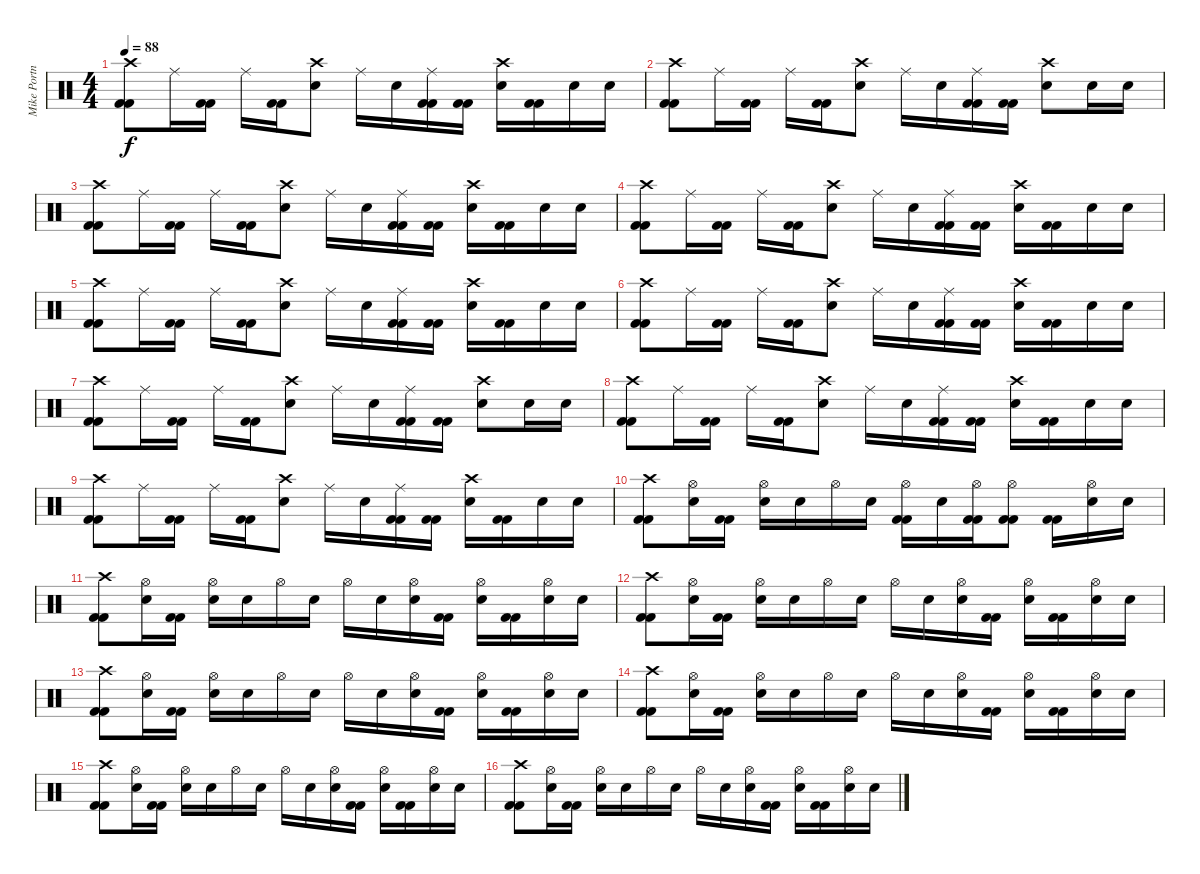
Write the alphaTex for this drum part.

\track ("Mike Portnoy" "Mike Portn") {instrument percussion}
\staff {score}
\articulation defaults
\ts (4 4)
\tempo 88
\clef neutral
\ks c
("Crash high (hit)" "Kick (hit) 2" "Kick (hit) 2").8{dy f} "Ride (middle)".16 ("Kick (hit) 2" "Kick (hit) 2").16 "Ride (middle)".16 ("Kick (hit) 2" "Kick (hit) 2").16 ("Crash high (hit)" "Snare (hit) 2").8 "Ride (middle)".16 "Snare (hit) 2".16 ("Ride (middle)" "Kick (hit) 2" "Kick (hit) 2").16 ("Kick (hit) 2" "Kick (hit) 2").16 ("Crash high (hit)" "Snare (hit) 2").16 ("Kick (hit) 2" "Kick (hit) 2").16 "Snare (hit) 2".16 "Snare (hit) 2".16 |
("Crash high (hit)" "Kick (hit) 2" "Kick (hit) 2").8 "Ride (middle)".16 ("Kick (hit) 2" "Kick (hit) 2").16 "Ride (middle)".16 ("Kick (hit) 2" "Kick (hit) 2").16 ("Crash high (hit)" "Snare (hit) 2").8 "Ride (middle)".16 "Snare (hit) 2".16 ("Ride (middle)" "Kick (hit) 2" "Kick (hit) 2").16 ("Kick (hit) 2" "Kick (hit) 2").16 ("Crash high (hit)" "Snare (hit) 2").8 "Snare (hit) 2".16 "Snare (hit) 2".16 |
("Crash high (hit)" "Kick (hit) 2" "Kick (hit) 2").8 "Ride (middle)".16 ("Kick (hit) 2" "Kick (hit) 2").16 "Ride (middle)".16 ("Kick (hit) 2" "Kick (hit) 2").16 ("Crash high (hit)" "Snare (hit) 2").8 "Ride (middle)".16 "Snare (hit) 2".16 ("Ride (middle)" "Kick (hit) 2" "Kick (hit) 2").16 ("Kick (hit) 2" "Kick (hit) 2").16 ("Crash high (hit)" "Snare (hit) 2").16 ("Kick (hit) 2" "Kick (hit) 2").16 "Snare (hit) 2".16 "Snare (hit) 2".16 |
("Crash high (hit)" "Kick (hit) 2" "Kick (hit) 2").8 "Ride (middle)".16 ("Kick (hit) 2" "Kick (hit) 2").16 "Ride (middle)".16 ("Kick (hit) 2" "Kick (hit) 2").16 ("Crash high (hit)" "Snare (hit) 2").8 "Ride (middle)".16 "Snare (hit) 2".16 ("Ride (middle)" "Kick (hit) 2" "Kick (hit) 2").16 ("Kick (hit) 2" "Kick (hit) 2").16 ("Crash high (hit)" "Snare (hit) 2").16 ("Kick (hit) 2" "Kick (hit) 2").16 "Snare (hit) 2".16 "Snare (hit) 2".16 |
("Crash high (hit)" "Kick (hit) 2" "Kick (hit) 2").8 "Ride (middle)".16 ("Kick (hit) 2" "Kick (hit) 2").16 "Ride (middle)".16 ("Kick (hit) 2" "Kick (hit) 2").16 ("Crash high (hit)" "Snare (hit) 2").8 "Ride (middle)".16 "Snare (hit) 2".16 ("Ride (middle)" "Kick (hit) 2" "Kick (hit) 2").16 ("Kick (hit) 2" "Kick (hit) 2").16 ("Crash high (hit)" "Snare (hit) 2").16 ("Kick (hit) 2" "Kick (hit) 2").16 "Snare (hit) 2".16 "Snare (hit) 2".16 |
("Crash high (hit)" "Kick (hit) 2" "Kick (hit) 2").8 "Ride (middle)".16 ("Kick (hit) 2" "Kick (hit) 2").16 "Ride (middle)".16 ("Kick (hit) 2" "Kick (hit) 2").16 ("Crash high (hit)" "Snare (hit) 2").8 "Ride (middle)".16 "Snare (hit) 2".16 ("Ride (middle)" "Kick (hit) 2" "Kick (hit) 2").16 ("Kick (hit) 2" "Kick (hit) 2").16 ("Crash high (hit)" "Snare (hit) 2").16 ("Kick (hit) 2" "Kick (hit) 2").16 "Snare (hit) 2".16 "Snare (hit) 2".16 |
("Crash high (hit)" "Kick (hit) 2" "Kick (hit) 2").8 "Ride (middle)".16 ("Kick (hit) 2" "Kick (hit) 2").16 "Ride (middle)".16 ("Kick (hit) 2" "Kick (hit) 2").16 ("Crash high (hit)" "Snare (hit) 2").8 "Ride (middle)".16 "Snare (hit) 2".16 ("Ride (middle)" "Kick (hit) 2" "Kick (hit) 2").16 ("Kick (hit) 2" "Kick (hit) 2").16 ("Crash high (hit)" "Snare (hit) 2").8 "Snare (hit) 2".16 "Snare (hit) 2".16 |
("Crash high (hit)" "Kick (hit) 2" "Kick (hit) 2").8 "Ride (middle)".16 ("Kick (hit) 2" "Kick (hit) 2").16 "Ride (middle)".16 ("Kick (hit) 2" "Kick (hit) 2").16 ("Crash high (hit)" "Snare (hit) 2").8 "Ride (middle)".16 "Snare (hit) 2".16 ("Ride (middle)" "Kick (hit) 2" "Kick (hit) 2").16 ("Kick (hit) 2" "Kick (hit) 2").16 ("Crash high (hit)" "Snare (hit) 2").16 ("Kick (hit) 2" "Kick (hit) 2").16 "Snare (hit) 2".16 "Snare (hit) 2".16 |
("Crash high (hit)" "Kick (hit) 2" "Kick (hit) 2").8 "Ride (middle)".16 ("Kick (hit) 2" "Kick (hit) 2").16 "Ride (middle)".16 ("Kick (hit) 2" "Kick (hit) 2").16 ("Crash high (hit)" "Snare (hit) 2").8 "Ride (middle)".16 "Snare (hit) 2".16 ("Ride (middle)" "Kick (hit) 2" "Kick (hit) 2").16 ("Kick (hit) 2" "Kick (hit) 2").16 ("Crash high (hit)" "Snare (hit) 2").16 ("Kick (hit) 2" "Kick (hit) 2").16 "Snare (hit) 2".16 "Snare (hit) 2".16 |
("Crash high (hit)" "Kick (hit) 2" "Kick (hit) 2").8 ("Hi-Hat (open)" "Snare (hit) 2").16 ("Kick (hit) 2" "Kick (hit) 2").16 ("Hi-Hat (open)" "Snare (hit) 2").16 "Snare (hit) 2".16 "Hi-Hat (open)".16 "Snare (hit) 2".16 ("Hi-Hat (open)" "Kick (hit) 2" "Kick (hit) 2").16 "Snare (hit) 2".16 ("Hi-Hat (open)" "Kick (hit) 2" "Kick (hit) 2").16 ("Hi-Hat (open)" "Kick (hit) 2" "Kick (hit) 2").8 ("Kick (hit) 2" "Kick (hit) 2").16 ("Hi-Hat (open)" "Snare (hit) 2").16 "Snare (hit) 2".16 |
("Crash high (hit)" "Kick (hit) 2" "Kick (hit) 2").8 ("Hi-Hat (open)" "Snare (hit) 2").16 ("Kick (hit) 2" "Kick (hit) 2").16 ("Hi-Hat (open)" "Snare (hit) 2").16 "Snare (hit) 2".16 "Hi-Hat (open)".16 "Snare (hit) 2".16 "Hi-Hat (open)".16 "Snare (hit) 2".16 ("Hi-Hat (open)" "Snare (hit) 2").16 ("Kick (hit) 2" "Kick (hit) 2").16 ("Hi-Hat (open)" "Snare (hit) 2").16 ("Kick (hit) 2" "Kick (hit) 2").16 ("Hi-Hat (open)" "Snare (hit) 2").16 "Snare (hit) 2".16 |
("Crash high (hit)" "Kick (hit) 2" "Kick (hit) 2").8 ("Hi-Hat (open)" "Snare (hit) 2").16 ("Kick (hit) 2" "Kick (hit) 2").16 ("Hi-Hat (open)" "Snare (hit) 2").16 "Snare (hit) 2".16 "Hi-Hat (open)".16 "Snare (hit) 2".16 "Hi-Hat (open)".16 "Snare (hit) 2".16 ("Hi-Hat (open)" "Snare (hit) 2").16 ("Kick (hit) 2" "Kick (hit) 2").16 ("Hi-Hat (open)" "Snare (hit) 2").16 ("Kick (hit) 2" "Kick (hit) 2").16 ("Hi-Hat (open)" "Snare (hit) 2").16 "Snare (hit) 2".16 |
("Crash high (hit)" "Kick (hit) 2" "Kick (hit) 2").8 ("Hi-Hat (open)" "Snare (hit) 2").16 ("Kick (hit) 2" "Kick (hit) 2").16 ("Hi-Hat (open)" "Snare (hit) 2").16 "Snare (hit) 2".16 "Hi-Hat (open)".16 "Snare (hit) 2".16 "Hi-Hat (open)".16 "Snare (hit) 2".16 ("Hi-Hat (open)" "Snare (hit) 2").16 ("Kick (hit) 2" "Kick (hit) 2").16 ("Hi-Hat (open)" "Snare (hit) 2").16 ("Kick (hit) 2" "Kick (hit) 2").16 ("Hi-Hat (open)" "Snare (hit) 2").16 "Snare (hit) 2".16 |
("Crash high (hit)" "Kick (hit) 2" "Kick (hit) 2").8 ("Hi-Hat (open)" "Snare (hit) 2").16 ("Kick (hit) 2" "Kick (hit) 2").16 ("Hi-Hat (open)" "Snare (hit) 2").16 "Snare (hit) 2".16 "Hi-Hat (open)".16 "Snare (hit) 2".16 "Hi-Hat (open)".16 "Snare (hit) 2".16 ("Hi-Hat (open)" "Snare (hit) 2").16 ("Kick (hit) 2" "Kick (hit) 2").16 ("Hi-Hat (open)" "Snare (hit) 2").16 ("Kick (hit) 2" "Kick (hit) 2").16 ("Hi-Hat (open)" "Snare (hit) 2").16 "Snare (hit) 2".16 |
("Crash high (hit)" "Kick (hit) 2" "Kick (hit) 2").8 ("Hi-Hat (open)" "Snare (hit) 2").16 ("Kick (hit) 2" "Kick (hit) 2").16 ("Hi-Hat (open)" "Snare (hit) 2").16 "Snare (hit) 2".16 "Hi-Hat (open)".16 "Snare (hit) 2".16 "Hi-Hat (open)".16 "Snare (hit) 2".16 ("Hi-Hat (open)" "Snare (hit) 2").16 ("Kick (hit) 2" "Kick (hit) 2").16 ("Hi-Hat (open)" "Snare (hit) 2").16 ("Kick (hit) 2" "Kick (hit) 2").16 ("Hi-Hat (open)" "Snare (hit) 2").16 "Snare (hit) 2".16 |
("Crash high (hit)" "Kick (hit) 2" "Kick (hit) 2").8 ("Hi-Hat (open)" "Snare (hit) 2").16 ("Kick (hit) 2" "Kick (hit) 2").16 ("Hi-Hat (open)" "Snare (hit) 2").16 "Snare (hit) 2".16 "Hi-Hat (open)".16 "Snare (hit) 2".16 "Hi-Hat (open)".16 "Snare (hit) 2".16 ("Hi-Hat (open)" "Snare (hit) 2").16 ("Kick (hit) 2" "Kick (hit) 2").16 ("Hi-Hat (open)" "Snare (hit) 2").16 ("Kick (hit) 2" "Kick (hit) 2").16 ("Hi-Hat (open)" "Snare (hit) 2").16 "Snare (hit) 2".16
